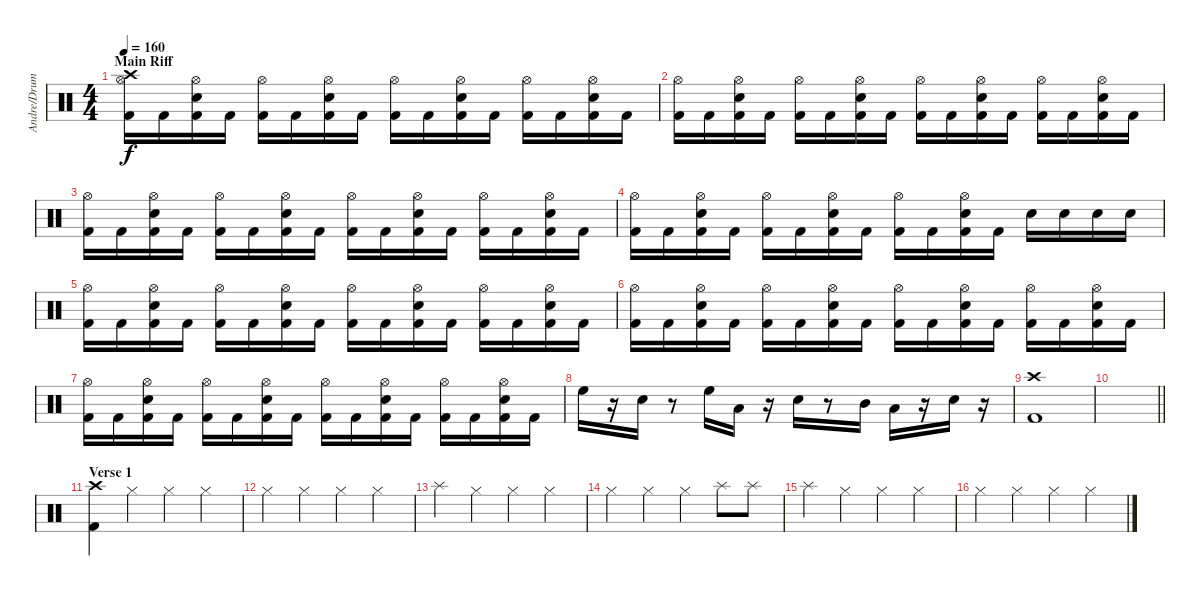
\track ("Andre/Drums" "Andre/Drum") {instrument percussion}
\staff {score}
\articulation defaults
\ts (4 4)
\section ("" "Main Riff")
\tempo 160
\clef neutral
\ks c
("Crash high (hit)" "Hi-Hat (open)" "Kick (hit) 2").16{dy f} "Kick (hit) 2".16 ("Hi-Hat (open)" "Snare (hit) 2" "Kick (hit) 2").16 "Kick (hit) 2".16 ("Hi-Hat (open)" "Kick (hit) 2").16 "Kick (hit) 2".16 ("Hi-Hat (open)" "Snare (hit) 2" "Kick (hit) 2").16 "Kick (hit) 2".16 ("Hi-Hat (open)" "Kick (hit) 2").16 "Kick (hit) 2".16 ("Hi-Hat (open)" "Snare (hit) 2" "Kick (hit) 2").16 "Kick (hit) 2".16 ("Hi-Hat (open)" "Kick (hit) 2").16 "Kick (hit) 2".16 ("Hi-Hat (open)" "Snare (hit) 2" "Kick (hit) 2").16 "Kick (hit) 2".16 |
("Hi-Hat (open)" "Kick (hit) 2").16 "Kick (hit) 2".16 ("Hi-Hat (open)" "Snare (hit) 2" "Kick (hit) 2").16 "Kick (hit) 2".16 ("Hi-Hat (open)" "Kick (hit) 2").16 "Kick (hit) 2".16 ("Hi-Hat (open)" "Snare (hit) 2" "Kick (hit) 2").16 "Kick (hit) 2".16 ("Hi-Hat (open)" "Kick (hit) 2").16 "Kick (hit) 2".16 ("Hi-Hat (open)" "Snare (hit) 2" "Kick (hit) 2").16 "Kick (hit) 2".16 ("Hi-Hat (open)" "Kick (hit) 2").16 "Kick (hit) 2".16 ("Hi-Hat (open)" "Snare (hit) 2" "Kick (hit) 2").16 "Kick (hit) 2".16 |
("Hi-Hat (open)" "Kick (hit) 2").16 "Kick (hit) 2".16 ("Hi-Hat (open)" "Snare (hit) 2" "Kick (hit) 2").16 "Kick (hit) 2".16 ("Hi-Hat (open)" "Kick (hit) 2").16 "Kick (hit) 2".16 ("Hi-Hat (open)" "Snare (hit) 2" "Kick (hit) 2").16 "Kick (hit) 2".16 ("Hi-Hat (open)" "Kick (hit) 2").16 "Kick (hit) 2".16 ("Hi-Hat (open)" "Snare (hit) 2" "Kick (hit) 2").16 "Kick (hit) 2".16 ("Hi-Hat (open)" "Kick (hit) 2").16 "Kick (hit) 2".16 ("Hi-Hat (open)" "Snare (hit) 2" "Kick (hit) 2").16 "Kick (hit) 2".16 |
("Hi-Hat (open)" "Kick (hit) 2").16 "Kick (hit) 2".16 ("Hi-Hat (open)" "Snare (hit) 2" "Kick (hit) 2").16 "Kick (hit) 2".16 ("Hi-Hat (open)" "Kick (hit) 2").16 "Kick (hit) 2".16 ("Hi-Hat (open)" "Snare (hit) 2" "Kick (hit) 2").16 "Kick (hit) 2".16 ("Hi-Hat (open)" "Kick (hit) 2").16 "Kick (hit) 2".16 ("Hi-Hat (open)" "Snare (hit) 2" "Kick (hit) 2").16 "Kick (hit) 2".16 "Snare (hit) 2".16 "Snare (hit) 2".16 "Snare (hit) 2".16 "Snare (hit) 2".16 |
("Hi-Hat (open)" "Kick (hit) 2").16 "Kick (hit) 2".16 ("Hi-Hat (open)" "Snare (hit) 2" "Kick (hit) 2").16 "Kick (hit) 2".16 ("Hi-Hat (open)" "Kick (hit) 2").16 "Kick (hit) 2".16 ("Hi-Hat (open)" "Snare (hit) 2" "Kick (hit) 2").16 "Kick (hit) 2".16 ("Hi-Hat (open)" "Kick (hit) 2").16 "Kick (hit) 2".16 ("Hi-Hat (open)" "Snare (hit) 2" "Kick (hit) 2").16 "Kick (hit) 2".16 ("Hi-Hat (open)" "Kick (hit) 2").16 "Kick (hit) 2".16 ("Hi-Hat (open)" "Snare (hit) 2" "Kick (hit) 2").16 "Kick (hit) 2".16 |
("Hi-Hat (open)" "Kick (hit) 2").16 "Kick (hit) 2".16 ("Hi-Hat (open)" "Snare (hit) 2" "Kick (hit) 2").16 "Kick (hit) 2".16 ("Hi-Hat (open)" "Kick (hit) 2").16 "Kick (hit) 2".16 ("Hi-Hat (open)" "Snare (hit) 2" "Kick (hit) 2").16 "Kick (hit) 2".16 ("Hi-Hat (open)" "Kick (hit) 2").16 "Kick (hit) 2".16 ("Hi-Hat (open)" "Snare (hit) 2" "Kick (hit) 2").16 "Kick (hit) 2".16 ("Hi-Hat (open)" "Kick (hit) 2").16 "Kick (hit) 2".16 ("Hi-Hat (open)" "Snare (hit) 2" "Kick (hit) 2").16 "Kick (hit) 2".16 |
("Hi-Hat (open)" "Kick (hit) 2").16 "Kick (hit) 2".16 ("Hi-Hat (open)" "Snare (hit) 2" "Kick (hit) 2").16 "Kick (hit) 2".16 ("Hi-Hat (open)" "Kick (hit) 2").16 "Kick (hit) 2".16 ("Hi-Hat (open)" "Snare (hit) 2" "Kick (hit) 2").16 "Kick (hit) 2".16 ("Hi-Hat (open)" "Kick (hit) 2").16 "Kick (hit) 2".16 ("Hi-Hat (open)" "Snare (hit) 2" "Kick (hit) 2").16 "Kick (hit) 2".16 ("Hi-Hat (open)" "Kick (hit) 2").16 "Kick (hit) 2".16 ("Hi-Hat (open)" "Snare (hit) 2" "Kick (hit) 2").16 "Kick (hit) 2".16 |
"High Floor Tom (hit)".16 r.16 "Snare (hit) 2".16 r.8 "High Floor Tom (hit)".16 "Low Tom (hit)".16 r.16 "Snare (hit) 2".16 r.8 "Mid Tom (hit)".16 "Low Tom (hit)".16 r.16 "Snare (hit) 2".16 r.16 |
("Crash high (hit)" "Kick (hit) 2").1 |
\barLineRight lightlight
|
\section ("" "Verse 1")
("Crash high (hit)" "Kick (hit) 2").4 "Hi-Hat (closed)".4 "Hi-Hat (closed)".4 "Hi-Hat (closed)".4 |
"Hi-Hat (closed)".4 "Hi-Hat (closed)".4 "Hi-Hat (closed)".4 "Hi-Hat (closed)".4 |
"Splash (hit)".4 "Hi-Hat (closed)".4 "Hi-Hat (closed)".4 "Hi-Hat (closed)".4 |
"Hi-Hat (closed)".4 "Hi-Hat (closed)".4 "Hi-Hat (closed)".4 "Splash (hit)".8 "Splash (hit)".8 |
"Splash (hit)".4 "Hi-Hat (closed)".4 "Hi-Hat (closed)".4 "Hi-Hat (closed)".4 |
"Hi-Hat (closed)".4 "Hi-Hat (closed)".4 "Hi-Hat (closed)".4 "Hi-Hat (closed)".4
